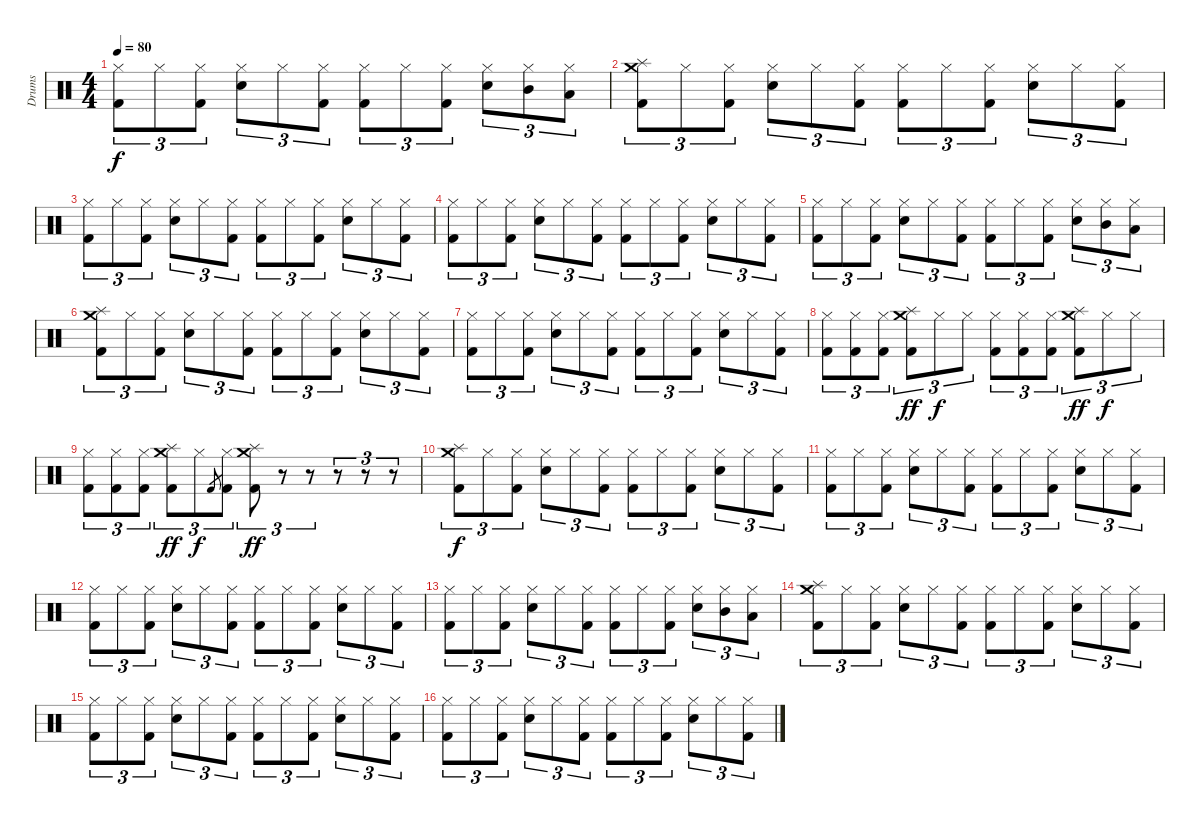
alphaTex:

\track ("Drums" "Drums") {instrument percussion}
\staff {score}
\articulation defaults
\ts (4 4)
\tempo 80
\clef neutral
\ks c
("Hi-Hat (closed)" "Kick (hit) 2").8{tu (3 2) dy f} "Hi-Hat (closed)".8{tu (3 2)} ("Hi-Hat (closed)" "Kick (hit) 2").8{tu (3 2)} ("Hi-Hat (closed)" "Snare (hit) 2").8{tu (3 2)} "Hi-Hat (closed)".8{tu (3 2)} ("Hi-Hat (closed)" "Kick (hit) 2").8{tu (3 2)} ("Hi-Hat (closed)" "Kick (hit) 2").8{tu (3 2)} "Hi-Hat (closed)".8{tu (3 2)} ("Hi-Hat (closed)" "Kick (hit) 2").8{tu (3 2)} ("Hi-Hat (closed)" "Snare (hit) 2").8{tu (3 2)} ("Hi-Hat (closed)" "Mid Tom (hit)").8{tu (3 2)} ("Hi-Hat (closed)" "Low Tom (hit)").8{tu (3 2)} |
("Crash medium (hit)" "Splash (hit)" "Kick (hit) 2").8{tu (3 2)} "Hi-Hat (closed)".8{tu (3 2)} ("Hi-Hat (closed)" "Kick (hit) 2").8{tu (3 2)} ("Hi-Hat (closed)" "Snare (hit) 2").8{tu (3 2)} "Hi-Hat (closed)".8{tu (3 2)} ("Hi-Hat (closed)" "Kick (hit) 2").8{tu (3 2)} ("Hi-Hat (closed)" "Kick (hit) 2").8{tu (3 2)} "Hi-Hat (closed)".8{tu (3 2)} ("Hi-Hat (closed)" "Kick (hit) 2").8{tu (3 2)} ("Hi-Hat (closed)" "Snare (hit) 2").8{tu (3 2)} "Hi-Hat (closed)".8{tu (3 2)} ("Hi-Hat (closed)" "Kick (hit) 2").8{tu (3 2)} |
("Hi-Hat (closed)" "Kick (hit) 2").8{tu (3 2)} "Hi-Hat (closed)".8{tu (3 2)} ("Hi-Hat (closed)" "Kick (hit) 2").8{tu (3 2)} ("Hi-Hat (closed)" "Snare (hit) 2").8{tu (3 2)} "Hi-Hat (closed)".8{tu (3 2)} ("Hi-Hat (closed)" "Kick (hit) 2").8{tu (3 2)} ("Hi-Hat (closed)" "Kick (hit) 2").8{tu (3 2)} "Hi-Hat (closed)".8{tu (3 2)} ("Hi-Hat (closed)" "Kick (hit) 2").8{tu (3 2)} ("Hi-Hat (closed)" "Snare (hit) 2").8{tu (3 2)} "Hi-Hat (closed)".8{tu (3 2)} ("Hi-Hat (closed)" "Kick (hit) 2").8{tu (3 2)} |
("Hi-Hat (closed)" "Kick (hit) 2").8{tu (3 2)} "Hi-Hat (closed)".8{tu (3 2)} ("Hi-Hat (closed)" "Kick (hit) 2").8{tu (3 2)} ("Hi-Hat (closed)" "Snare (hit) 2").8{tu (3 2)} "Hi-Hat (closed)".8{tu (3 2)} ("Hi-Hat (closed)" "Kick (hit) 2").8{tu (3 2)} ("Hi-Hat (closed)" "Kick (hit) 2").8{tu (3 2)} "Hi-Hat (closed)".8{tu (3 2)} ("Hi-Hat (closed)" "Kick (hit) 2").8{tu (3 2)} ("Hi-Hat (closed)" "Snare (hit) 2").8{tu (3 2)} "Hi-Hat (closed)".8{tu (3 2)} ("Hi-Hat (closed)" "Kick (hit) 2").8{tu (3 2)} |
("Hi-Hat (closed)" "Kick (hit) 2").8{tu (3 2)} "Hi-Hat (closed)".8{tu (3 2)} ("Hi-Hat (closed)" "Kick (hit) 2").8{tu (3 2)} ("Hi-Hat (closed)" "Snare (hit) 2").8{tu (3 2)} "Hi-Hat (closed)".8{tu (3 2)} ("Hi-Hat (closed)" "Kick (hit) 2").8{tu (3 2)} ("Hi-Hat (closed)" "Kick (hit) 2").8{tu (3 2)} "Hi-Hat (closed)".8{tu (3 2)} ("Hi-Hat (closed)" "Kick (hit) 2").8{tu (3 2)} ("Hi-Hat (closed)" "Snare (hit) 2").8{tu (3 2)} ("Hi-Hat (closed)" "Mid Tom (hit)").8{tu (3 2)} ("Hi-Hat (closed)" "Low Tom (hit)").8{tu (3 2)} |
("Crash medium (hit)" "Splash (hit)" "Kick (hit) 2").8{tu (3 2)} "Hi-Hat (closed)".8{tu (3 2)} ("Hi-Hat (closed)" "Kick (hit) 2").8{tu (3 2)} ("Hi-Hat (closed)" "Snare (hit) 2").8{tu (3 2)} "Hi-Hat (closed)".8{tu (3 2)} ("Hi-Hat (closed)" "Kick (hit) 2").8{tu (3 2)} ("Hi-Hat (closed)" "Kick (hit) 2").8{tu (3 2)} "Hi-Hat (closed)".8{tu (3 2)} ("Hi-Hat (closed)" "Kick (hit) 2").8{tu (3 2)} ("Hi-Hat (closed)" "Snare (hit) 2").8{tu (3 2)} "Hi-Hat (closed)".8{tu (3 2)} ("Hi-Hat (closed)" "Kick (hit) 2").8{tu (3 2)} |
("Hi-Hat (closed)" "Kick (hit) 2").8{tu (3 2)} "Hi-Hat (closed)".8{tu (3 2)} ("Hi-Hat (closed)" "Kick (hit) 2").8{tu (3 2)} ("Hi-Hat (closed)" "Snare (hit) 2").8{tu (3 2)} "Hi-Hat (closed)".8{tu (3 2)} ("Hi-Hat (closed)" "Kick (hit) 2").8{tu (3 2)} ("Hi-Hat (closed)" "Kick (hit) 2").8{tu (3 2)} "Hi-Hat (closed)".8{tu (3 2)} ("Hi-Hat (closed)" "Kick (hit) 2").8{tu (3 2)} ("Hi-Hat (closed)" "Snare (hit) 2").8{tu (3 2)} "Hi-Hat (closed)".8{tu (3 2)} ("Hi-Hat (closed)" "Kick (hit) 2").8{tu (3 2)} |
("Hi-Hat (closed)" "Kick (hit) 2").8{tu (3 2)} ("Hi-Hat (closed)" "Kick (hit) 2").8{tu (3 2)} ("Hi-Hat (closed)" "Kick (hit) 2").8{tu (3 2)} ("Crash medium (hit)" "Splash (hit)" "Kick (hit) 2").8{tu (3 2) dy ff} "Hi-Hat (closed)".8{tu (3 2) dy f} "Hi-Hat (closed)".8{tu (3 2)} ("Hi-Hat (closed)" "Kick (hit) 2").8{tu (3 2)} ("Hi-Hat (closed)" "Kick (hit) 2").8{tu (3 2)} ("Hi-Hat (closed)" "Kick (hit) 2").8{tu (3 2)} ("Crash medium (hit)" "Splash (hit)" "Kick (hit) 2").8{tu (3 2) dy ff} "Hi-Hat (closed)".8{tu (3 2) dy f} "Hi-Hat (closed)".8{tu (3 2)} |
("Hi-Hat (closed)" "Kick (hit) 2").8{tu (3 2)} ("Hi-Hat (closed)" "Kick (hit) 2").8{tu (3 2)} ("Hi-Hat (closed)" "Kick (hit) 2").8{tu (3 2)} ("Crash medium (hit)" "Splash (hit)" "Kick (hit) 2").8{tu (3 2) dy ff} "Hi-Hat (closed)".8{tu (3 2) dy f} "Kick (hit) 2".8{gr} ("Hi-Hat (closed)" "Kick (hit) 2").8{tu (3 2)} ("Crash medium (hit)" "Splash (hit)" "Kick (hit) 2").8{tu (3 2) dy ff} r.8{tu (3 2)} r.8{tu (3 2)} r.8{tu (3 2)} r.8{tu (3 2)} r.8{tu (3 2)} |
("Crash medium (hit)" "Splash (hit)" "Kick (hit) 2").8{tu (3 2) dy f} "Hi-Hat (closed)".8{tu (3 2)} ("Hi-Hat (closed)" "Kick (hit) 2").8{tu (3 2)} ("Hi-Hat (closed)" "Snare (hit) 2").8{tu (3 2)} "Hi-Hat (closed)".8{tu (3 2)} ("Hi-Hat (closed)" "Kick (hit) 2").8{tu (3 2)} ("Hi-Hat (closed)" "Kick (hit) 2").8{tu (3 2)} "Hi-Hat (closed)".8{tu (3 2)} ("Hi-Hat (closed)" "Kick (hit) 2").8{tu (3 2)} ("Hi-Hat (closed)" "Snare (hit) 2").8{tu (3 2)} "Hi-Hat (closed)".8{tu (3 2)} ("Hi-Hat (closed)" "Kick (hit) 2").8{tu (3 2)} |
("Hi-Hat (closed)" "Kick (hit) 2").8{tu (3 2)} "Hi-Hat (closed)".8{tu (3 2)} ("Hi-Hat (closed)" "Kick (hit) 2").8{tu (3 2)} ("Hi-Hat (closed)" "Snare (hit) 2").8{tu (3 2)} "Hi-Hat (closed)".8{tu (3 2)} ("Hi-Hat (closed)" "Kick (hit) 2").8{tu (3 2)} ("Hi-Hat (closed)" "Kick (hit) 2").8{tu (3 2)} "Hi-Hat (closed)".8{tu (3 2)} ("Hi-Hat (closed)" "Kick (hit) 2").8{tu (3 2)} ("Hi-Hat (closed)" "Snare (hit) 2").8{tu (3 2)} "Hi-Hat (closed)".8{tu (3 2)} ("Hi-Hat (closed)" "Kick (hit) 2").8{tu (3 2)} |
("Hi-Hat (closed)" "Kick (hit) 2").8{tu (3 2)} "Hi-Hat (closed)".8{tu (3 2)} ("Hi-Hat (closed)" "Kick (hit) 2").8{tu (3 2)} ("Hi-Hat (closed)" "Snare (hit) 2").8{tu (3 2)} "Hi-Hat (closed)".8{tu (3 2)} ("Hi-Hat (closed)" "Kick (hit) 2").8{tu (3 2)} ("Hi-Hat (closed)" "Kick (hit) 2").8{tu (3 2)} "Hi-Hat (closed)".8{tu (3 2)} ("Hi-Hat (closed)" "Kick (hit) 2").8{tu (3 2)} ("Hi-Hat (closed)" "Snare (hit) 2").8{tu (3 2)} "Hi-Hat (closed)".8{tu (3 2)} ("Hi-Hat (closed)" "Kick (hit) 2").8{tu (3 2)} |
("Hi-Hat (closed)" "Kick (hit) 2").8{tu (3 2)} "Hi-Hat (closed)".8{tu (3 2)} ("Hi-Hat (closed)" "Kick (hit) 2").8{tu (3 2)} ("Hi-Hat (closed)" "Snare (hit) 2").8{tu (3 2)} "Hi-Hat (closed)".8{tu (3 2)} ("Hi-Hat (closed)" "Kick (hit) 2").8{tu (3 2)} ("Hi-Hat (closed)" "Kick (hit) 2").8{tu (3 2)} "Hi-Hat (closed)".8{tu (3 2)} ("Hi-Hat (closed)" "Kick (hit) 2").8{tu (3 2)} ("Hi-Hat (closed)" "Snare (hit) 2").8{tu (3 2)} ("Hi-Hat (closed)" "Mid Tom (hit)").8{tu (3 2)} ("Hi-Hat (closed)" "Low Tom (hit)").8{tu (3 2)} |
("Crash medium (hit)" "Splash (hit)" "Kick (hit) 2").8{tu (3 2)} "Hi-Hat (closed)".8{tu (3 2)} ("Hi-Hat (closed)" "Kick (hit) 2").8{tu (3 2)} ("Hi-Hat (closed)" "Snare (hit) 2").8{tu (3 2)} "Hi-Hat (closed)".8{tu (3 2)} ("Hi-Hat (closed)" "Kick (hit) 2").8{tu (3 2)} ("Hi-Hat (closed)" "Kick (hit) 2").8{tu (3 2)} "Hi-Hat (closed)".8{tu (3 2)} ("Hi-Hat (closed)" "Kick (hit) 2").8{tu (3 2)} ("Hi-Hat (closed)" "Snare (hit) 2").8{tu (3 2)} "Hi-Hat (closed)".8{tu (3 2)} ("Hi-Hat (closed)" "Kick (hit) 2").8{tu (3 2)} |
("Hi-Hat (closed)" "Kick (hit) 2").8{tu (3 2)} "Hi-Hat (closed)".8{tu (3 2)} ("Hi-Hat (closed)" "Kick (hit) 2").8{tu (3 2)} ("Hi-Hat (closed)" "Snare (hit) 2").8{tu (3 2)} "Hi-Hat (closed)".8{tu (3 2)} ("Hi-Hat (closed)" "Kick (hit) 2").8{tu (3 2)} ("Hi-Hat (closed)" "Kick (hit) 2").8{tu (3 2)} "Hi-Hat (closed)".8{tu (3 2)} ("Hi-Hat (closed)" "Kick (hit) 2").8{tu (3 2)} ("Hi-Hat (closed)" "Snare (hit) 2").8{tu (3 2)} "Hi-Hat (closed)".8{tu (3 2)} ("Hi-Hat (closed)" "Kick (hit) 2").8{tu (3 2)} |
("Hi-Hat (closed)" "Kick (hit) 2").8{tu (3 2)} "Hi-Hat (closed)".8{tu (3 2)} ("Hi-Hat (closed)" "Kick (hit) 2").8{tu (3 2)} ("Hi-Hat (closed)" "Snare (hit) 2").8{tu (3 2)} "Hi-Hat (closed)".8{tu (3 2)} ("Hi-Hat (closed)" "Kick (hit) 2").8{tu (3 2)} ("Hi-Hat (closed)" "Kick (hit) 2").8{tu (3 2)} "Hi-Hat (closed)".8{tu (3 2)} ("Hi-Hat (closed)" "Kick (hit) 2").8{tu (3 2)} ("Hi-Hat (closed)" "Snare (hit) 2").8{tu (3 2)} "Hi-Hat (closed)".8{tu (3 2)} ("Hi-Hat (closed)" "Kick (hit) 2").8{tu (3 2)}
